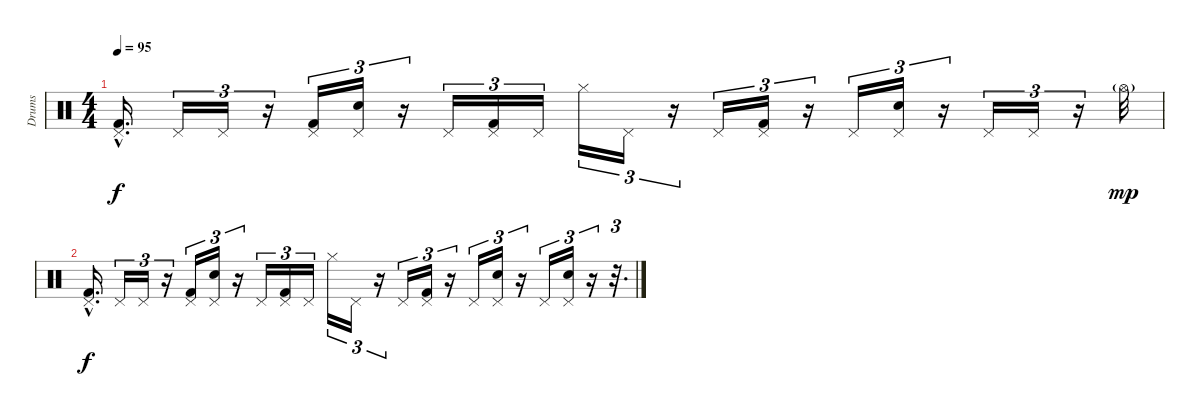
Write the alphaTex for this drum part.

\track ("Drums" "Drums") {instrument percussion}
\staff {score}
\articulation defaults
\ts (4 4)
\tempo 95
\clef neutral
\ks c
("Pedal Hi-Hat (hit)"{hac} "Kick (hit) 2"{hac}).16{d dy f} "Pedal Hi-Hat (hit)".16{tu (3 2)} "Pedal Hi-Hat (hit)".16{tu (3 2)} r.16{tu (3 2)} ("Pedal Hi-Hat (hit)" "Kick (hit) 2").16{tu (3 2)} ("Pedal Hi-Hat (hit)" "Electric Snare (hit)").16{tu (3 2)} r.16{tu (3 2)} "Pedal Hi-Hat (hit)".16{tu (3 2)} ("Pedal Hi-Hat (hit)" "Kick (hit) 2").16{tu (3 2)} "Pedal Hi-Hat (hit)".16{tu (3 2)} "Hi-Hat (closed)".16{tu (3 2)} "Pedal Hi-Hat (hit)".16{tu (3 2)} r.16{tu (3 2)} "Pedal Hi-Hat (hit)".16{tu (3 2)} ("Pedal Hi-Hat (hit)" "Kick (hit) 2").16{tu (3 2)} r.16{tu (3 2)} "Pedal Hi-Hat (hit)".16{tu (3 2)} ("Pedal Hi-Hat (hit)" "Electric Snare (hit)").16{tu (3 2)} r.16{tu (3 2)} "Pedal Hi-Hat (hit)".16{tu (3 2)} "Pedal Hi-Hat (hit)".16{tu (3 2)} r.16{tu (3 2)} "Hi-Hat (open)"{g}.32{dy mp} |
("Pedal Hi-Hat (hit)"{hac} "Kick (hit) 2"{hac}).16{d dy f} "Pedal Hi-Hat (hit)".16{tu (3 2)} "Pedal Hi-Hat (hit)".16{tu (3 2)} r.16{tu (3 2)} ("Pedal Hi-Hat (hit)" "Kick (hit) 2").16{tu (3 2)} ("Pedal Hi-Hat (hit)" "Electric Snare (hit)").16{tu (3 2)} r.16{tu (3 2)} "Pedal Hi-Hat (hit)".16{tu (3 2)} ("Pedal Hi-Hat (hit)" "Kick (hit) 2").16{tu (3 2)} "Pedal Hi-Hat (hit)".16{tu (3 2)} "Hi-Hat (closed)".16{tu (3 2)} "Pedal Hi-Hat (hit)".16{tu (3 2)} r.16{tu (3 2)} "Pedal Hi-Hat (hit)".16{tu (3 2)} ("Pedal Hi-Hat (hit)" "Kick (hit) 2").16{tu (3 2)} r.16{tu (3 2)} "Pedal Hi-Hat (hit)".16{tu (3 2)} ("Pedal Hi-Hat (hit)" "Electric Snare (hit)").16{tu (3 2)} r.16{tu (3 2)} "Pedal Hi-Hat (hit)".16{tu (3 2)} ("Pedal Hi-Hat (hit)" "Electric Snare (hit)").16{tu (3 2)} r.16{tu (3 2)} r.32{d tu (3 2)}
